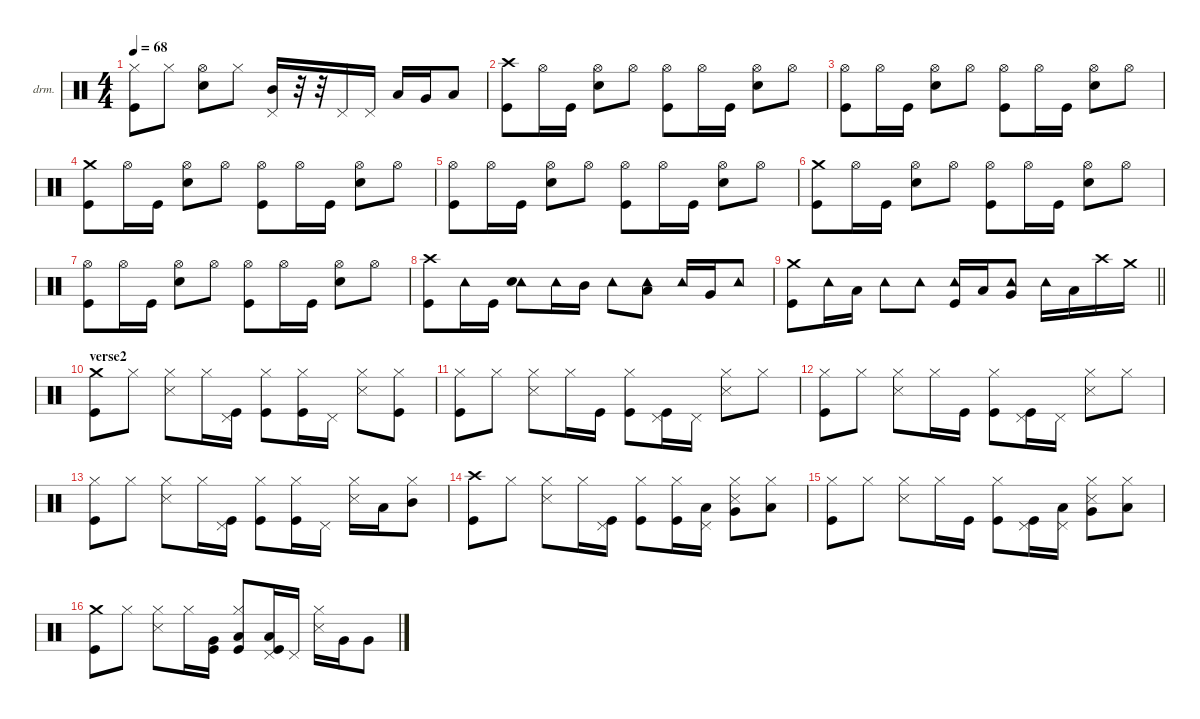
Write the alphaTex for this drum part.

\defaultSystemsLayout 4
\hideDynamics
\bracketExtendMode nobrackets
\firstSystemTrackNameOrientation horizontal
\otherSystemsTrackNameOrientation horizontal
\track ("Drums" "drm.") {instrument percussion}
\staff {score}
\articulation defaults
\ts (4 4)
\tempo 68
\clef neutral
\ks c
("Kick (hit)" "Hi-Hat (closed)").8{dy f} "Hi-Hat (closed)".8 ("Snare (hit) 2" "Hi-Hat (open)").8 "Hi-Hat (closed)".8 ("Mid Tom (hit)" "Pedal Hi-Hat (hit)").16 r.32 r.32 "Pedal Hi-Hat (hit)".16 "Pedal Hi-Hat (hit)".16 "Low Tom (hit)".16 "Very Low Tom (hit)".16 "Low Floor Tom (hit)".8 |
("Kick (hit)" "Crash high (hit)").8 "Hi-Hat (open)".16 "Kick (hit)".16 ("Hi-Hat (open)" "Snare (hit) 2").8 "Hi-Hat (open)".8 ("Hi-Hat (open)" "Kick (hit)").8 "Hi-Hat (open)".16 "Kick (hit)".16 ("Hi-Hat (open)" "Snare (hit) 2").8 "Hi-Hat (open)".8 |
("Hi-Hat (open)" "Kick (hit)").8 "Hi-Hat (open)".16 "Kick (hit)".16 ("Hi-Hat (open)" "Snare (hit) 2").8 "Hi-Hat (open)".8 ("Hi-Hat (open)" "Kick (hit)").8 "Hi-Hat (open)".16 "Kick (hit)".16 ("Hi-Hat (open)" "Snare (hit) 2").8 "Hi-Hat (open)".8 |
("Kick (hit)" "Crash medium (hit)").8 "Hi-Hat (open)".16 "Kick (hit)".16 ("Hi-Hat (open)" "Snare (hit) 2").8 "Hi-Hat (open)".8 ("Hi-Hat (open)" "Kick (hit)").8 "Hi-Hat (open)".16 "Kick (hit)".16 ("Hi-Hat (open)" "Snare (hit) 2").8 "Hi-Hat (open)".8 |
("Hi-Hat (open)" "Kick (hit)").8 "Hi-Hat (open)".16 "Kick (hit)".16 ("Hi-Hat (open)" "Snare (hit) 2").8 "Hi-Hat (open)".8 ("Hi-Hat (open)" "Kick (hit)").8 "Hi-Hat (open)".16 "Kick (hit)".16 ("Hi-Hat (open)" "Snare (hit) 2").8 "Hi-Hat (open)".8 |
("Kick (hit)" "Crash medium (hit)").8 "Hi-Hat (open)".16 "Kick (hit)".16 ("Hi-Hat (open)" "Snare (hit) 2").8 "Hi-Hat (open)".8 ("Hi-Hat (open)" "Kick (hit)").8 "Hi-Hat (open)".16 "Kick (hit)".16 ("Hi-Hat (open)" "Snare (hit) 2").8 "Hi-Hat (open)".8 |
("Hi-Hat (open)" "Kick (hit)").8 "Hi-Hat (open)".16 "Kick (hit)".16 ("Hi-Hat (open)" "Snare (hit) 2").8 "Hi-Hat (open)".8 ("Hi-Hat (open)" "Kick (hit)").8 "Hi-Hat (open)".16 "Kick (hit)".16 ("Hi-Hat (open)" "Snare (hit) 2").8 "Hi-Hat (open)".8 |
("Crash high (hit)" "Kick (hit)").8 "Tambourine (hit)".16 "Kick (hit)".16 ("Tambourine (hit)" "Snare (hit) 2").8 "Tambourine (hit)".16 "Mid Tom (hit)".16 "Tambourine (hit)".8 ("Tambourine (hit)" "Low Tom (hit)").8 "Tambourine (hit)".16 "Very Low Tom (hit)".16 "Tambourine (hit)".8 |
\barLineRight lightlight
("Kick (hit)" "Crash medium (hit)").8 "Tambourine (hit)".16 "Low Tom (hit)".16 "Tambourine (hit)".8 "Tambourine (hit)".8 ("Tambourine (hit)" "Kick (hit)").16 "Low Tom (hit)".16 ("Tambourine (hit)" "Very Low Tom (hit)").8 "Tambourine (hit)".16 "Low Tom (hit)".16 "Crash high (hit)".16 "Crash medium (hit)".16 |
\section ("" "verse2")
("Kick (hit)" "Crash medium (hit)").8 "Hi-Hat (closed)".8 ("Snare (side stick) 3" "Hi-Hat (closed)").8 "Hi-Hat (closed)".16 ("Pedal Hi-Hat (hit)" "Kick (hit)").16 ("Hi-Hat (closed)" "Kick (hit)").8 ("Hi-Hat (closed)" "Kick (hit)").16 "Pedal Hi-Hat (hit)".16 ("Snare (side stick) 3" "Hi-Hat (closed)").8 ("Kick (hit)" "Hi-Hat (closed)").8 |
("Kick (hit)" "Hi-Hat (closed)").8 "Hi-Hat (closed)".8 ("Snare (side stick) 3" "Hi-Hat (closed)").8 "Hi-Hat (closed)".16 "Kick (hit)".16 ("Hi-Hat (closed)" "Kick (hit)").8 ("Pedal Hi-Hat (hit)" "Kick (hit)").16 "Pedal Hi-Hat (hit)".16 ("Snare (side stick) 3" "Hi-Hat (closed)").8 "Hi-Hat (closed)".8 |
("Kick (hit)" "Hi-Hat (closed)").8 "Hi-Hat (closed)".8 ("Snare (side stick) 3" "Hi-Hat (closed)").8 "Hi-Hat (closed)".16 "Kick (hit)".16 ("Hi-Hat (closed)" "Kick (hit)").8 ("Pedal Hi-Hat (hit)" "Kick (hit)").16 "Pedal Hi-Hat (hit)".16 ("Snare (side stick) 3" "Hi-Hat (closed)").8 "Hi-Hat (closed)".8 |
("Kick (hit)" "Hi-Hat (closed)").8 "Hi-Hat (closed)".8 ("Snare (side stick) 3" "Hi-Hat (closed)").8 "Hi-Hat (closed)".16 ("Pedal Hi-Hat (hit)" "Kick (hit)").16 ("Hi-Hat (closed)" "Kick (hit)").8 ("Hi-Hat (closed)" "Kick (hit)").16 "Pedal Hi-Hat (hit)".16 ("Snare (side stick) 3" "Hi-Hat (closed)").16 "Low Tom (hit)".16 ("Mid Tom (hit)" "Hi-Hat (closed)").8 |
("Kick (hit)" "Crash high (hit)").8 "Hi-Hat (closed)".8 ("Snare (side stick) 3" "Hi-Hat (closed)").8 "Hi-Hat (closed)".16 ("Pedal Hi-Hat (hit)" "Kick (hit)").16 ("Hi-Hat (closed)" "Kick (hit)").8 ("Hi-Hat (closed)" "Kick (hit)").16 ("Pedal Hi-Hat (hit)" "Low Tom (hit)").16 ("Snare (side stick) 3" "Hi-Hat (closed)" "Very Low Tom (hit)").8 ("Hi-Hat (closed)" "Low Floor Tom (hit)").8 |
("Kick (hit)" "Hi-Hat (closed)").8 "Hi-Hat (closed)".8 ("Snare (side stick) 3" "Hi-Hat (closed)").8 "Hi-Hat (closed)".16 "Kick (hit)".16 ("Hi-Hat (closed)" "Kick (hit)").8 ("Pedal Hi-Hat (hit)" "Kick (hit)").16 ("Pedal Hi-Hat (hit)" "Low Tom (hit)").16 ("Snare (side stick) 3" "Hi-Hat (closed)" "Very Low Tom (hit)").8 ("Hi-Hat (closed)" "Low Floor Tom (hit)").8 |
("Kick (hit)" "Crash medium (hit)").8 "Hi-Hat (closed)".8 ("Snare (side stick) 3" "Hi-Hat (closed)").8 "Hi-Hat (closed)".16 ("Kick (hit)" "Very Low Tom (hit)").16 ("Hi-Hat (closed)" "Kick (hit)" "Low Floor Tom (hit)").8 ("Pedal Hi-Hat (hit)" "Kick (hit)" "Low Floor Tom (hit)").16 "Pedal Hi-Hat (hit)".16 ("Snare (side stick) 3" "Hi-Hat (closed)").16 "Very Low Tom (hit)".16 "Very Low Tom (hit)".8
